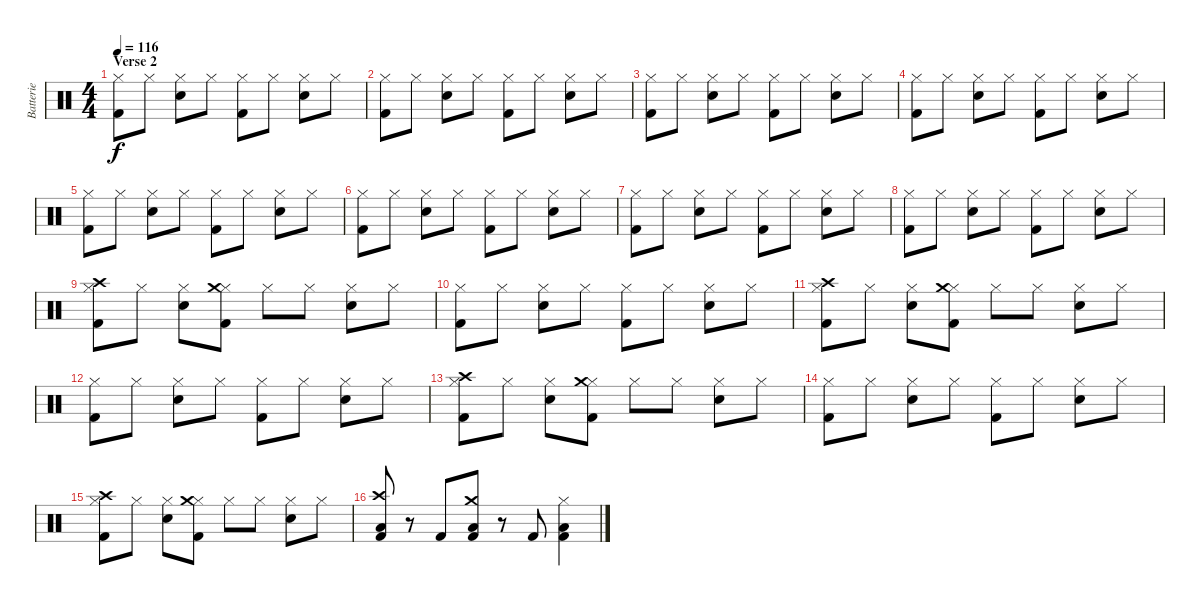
\track ("Batterie" "Batterie") {instrument percussion}
\staff {score}
\articulation defaults
\ts (4 4)
\section ("" "Verse 2")
\tempo 116
\clef neutral
\ks c
("Hi-Hat (closed)" "Kick (hit) 2").8{dy f} "Hi-Hat (closed)".8 ("Hi-Hat (closed)" "Snare (hit) 2").8 "Hi-Hat (closed)".8 ("Hi-Hat (closed)" "Kick (hit) 2").8 "Hi-Hat (closed)".8 ("Hi-Hat (closed)" "Snare (hit) 2").8 "Hi-Hat (closed)".8 |
("Hi-Hat (closed)" "Kick (hit) 2").8 "Hi-Hat (closed)".8 ("Hi-Hat (closed)" "Snare (hit) 2").8 "Hi-Hat (closed)".8 ("Hi-Hat (closed)" "Kick (hit) 2").8 "Hi-Hat (closed)".8 ("Hi-Hat (closed)" "Snare (hit) 2").8 "Hi-Hat (closed)".8 |
("Hi-Hat (closed)" "Kick (hit) 2").8 "Hi-Hat (closed)".8 ("Hi-Hat (closed)" "Snare (hit) 2").8 "Hi-Hat (closed)".8 ("Hi-Hat (closed)" "Kick (hit) 2").8 "Hi-Hat (closed)".8 ("Hi-Hat (closed)" "Snare (hit) 2").8 "Hi-Hat (closed)".8 |
("Hi-Hat (closed)" "Kick (hit) 2").8 "Hi-Hat (closed)".8 ("Hi-Hat (closed)" "Snare (hit) 2").8 "Hi-Hat (closed)".8 ("Hi-Hat (closed)" "Kick (hit) 2").8 "Hi-Hat (closed)".8 ("Hi-Hat (closed)" "Snare (hit) 2").8 "Hi-Hat (closed)".8 |
("Hi-Hat (closed)" "Kick (hit) 2").8 "Hi-Hat (closed)".8 ("Hi-Hat (closed)" "Snare (hit) 2").8 "Hi-Hat (closed)".8 ("Hi-Hat (closed)" "Kick (hit) 2").8 "Hi-Hat (closed)".8 ("Hi-Hat (closed)" "Snare (hit) 2").8 "Hi-Hat (closed)".8 |
("Hi-Hat (closed)" "Kick (hit) 2").8 "Hi-Hat (closed)".8 ("Hi-Hat (closed)" "Snare (hit) 2").8 "Hi-Hat (closed)".8 ("Hi-Hat (closed)" "Kick (hit) 2").8 "Hi-Hat (closed)".8 ("Hi-Hat (closed)" "Snare (hit) 2").8 "Hi-Hat (closed)".8 |
("Hi-Hat (closed)" "Kick (hit) 2").8 "Hi-Hat (closed)".8 ("Hi-Hat (closed)" "Snare (hit) 2").8 "Hi-Hat (closed)".8 ("Hi-Hat (closed)" "Kick (hit) 2").8 "Hi-Hat (closed)".8 ("Hi-Hat (closed)" "Snare (hit) 2").8 "Hi-Hat (closed)".8 |
("Hi-Hat (closed)" "Kick (hit) 2").8 "Hi-Hat (closed)".8 ("Hi-Hat (closed)" "Snare (hit) 2").8 "Hi-Hat (closed)".8 ("Hi-Hat (closed)" "Kick (hit) 2").8 "Hi-Hat (closed)".8 ("Hi-Hat (closed)" "Snare (hit) 2").8 "Hi-Hat (closed)".8 |
("Hi-Hat (closed)" "Crash high (hit)" "Kick (hit) 2").8 "Hi-Hat (closed)".8 ("Hi-Hat (closed)" "Snare (hit) 2").8 ("Hi-Hat (closed)" "Crash medium (hit)" "Kick (hit) 2").8 "Hi-Hat (closed)".8 "Hi-Hat (closed)".8 ("Hi-Hat (closed)" "Snare (hit) 2").8 "Hi-Hat (closed)".8 |
("Hi-Hat (closed)" "Kick (hit) 2").8 "Hi-Hat (closed)".8 ("Hi-Hat (closed)" "Snare (hit) 2").8 "Hi-Hat (closed)".8 ("Hi-Hat (closed)" "Kick (hit) 2").8 "Hi-Hat (closed)".8 ("Hi-Hat (closed)" "Snare (hit) 2").8 "Hi-Hat (closed)".8 |
("Hi-Hat (closed)" "Crash high (hit)" "Kick (hit) 2").8 "Hi-Hat (closed)".8 ("Hi-Hat (closed)" "Snare (hit) 2").8 ("Hi-Hat (closed)" "Crash medium (hit)" "Kick (hit) 2").8 "Hi-Hat (closed)".8 "Hi-Hat (closed)".8 ("Hi-Hat (closed)" "Snare (hit) 2").8 "Hi-Hat (closed)".8 |
("Hi-Hat (closed)" "Kick (hit) 2").8 "Hi-Hat (closed)".8 ("Hi-Hat (closed)" "Snare (hit) 2").8 "Hi-Hat (closed)".8 ("Hi-Hat (closed)" "Kick (hit) 2").8 "Hi-Hat (closed)".8 ("Hi-Hat (closed)" "Snare (hit) 2").8 "Hi-Hat (closed)".8 |
("Hi-Hat (closed)" "Crash high (hit)" "Kick (hit) 2").8 "Hi-Hat (closed)".8 ("Hi-Hat (closed)" "Snare (hit) 2").8 ("Hi-Hat (closed)" "Crash medium (hit)" "Kick (hit) 2").8 "Hi-Hat (closed)".8 "Hi-Hat (closed)".8 ("Hi-Hat (closed)" "Snare (hit) 2").8 "Hi-Hat (closed)".8 |
("Hi-Hat (closed)" "Kick (hit) 2").8 "Hi-Hat (closed)".8 ("Hi-Hat (closed)" "Snare (hit) 2").8 "Hi-Hat (closed)".8 ("Hi-Hat (closed)" "Kick (hit) 2").8 "Hi-Hat (closed)".8 ("Hi-Hat (closed)" "Snare (hit) 2").8 "Hi-Hat (closed)".8 |
("Hi-Hat (closed)" "Crash high (hit)" "Kick (hit) 2").8 "Hi-Hat (closed)".8 ("Hi-Hat (closed)" "Snare (hit) 2").8 ("Hi-Hat (closed)" "Crash medium (hit)" "Kick (hit) 2").8 "Hi-Hat (closed)".8 "Hi-Hat (closed)".8 ("Hi-Hat (closed)" "Snare (hit) 2").8 "Hi-Hat (closed)".8 |
("Low Tom (hit)" "Crash high (hit)" "Kick (hit) 2").8 r.8 "Kick (hit) 2".8 ("Low Tom (hit)" "Crash medium (hit)" "Kick (hit) 2").8 r.8 "Kick (hit) 2".8 ("Low Tom (hit)" "Hi-Hat (closed)" "Kick (hit) 2").4
